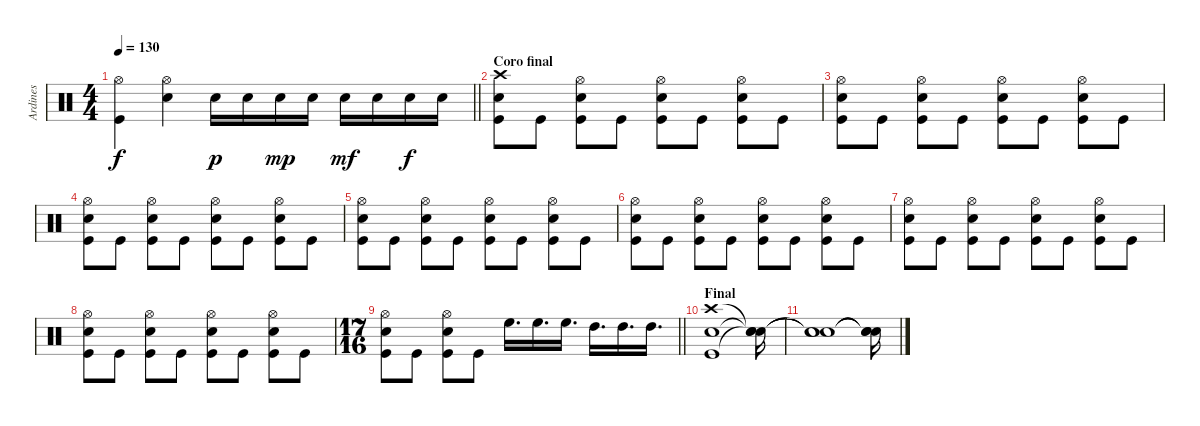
\track ("Ardines" "Ardines") {instrument percussion}
\staff {score}
\articulation defaults
\ts (4 4)
\tempo 130
\clef neutral
\barLineRight lightlight
\ks c
("Hi-Hat (open)" "Kick (hit)").4{dy f} ("Hi-Hat (open)" "Electric Snare (hit)").4 "Electric Snare (hit)".16{dy p} "Electric Snare (hit)".16 "Electric Snare (hit)".16{dy mp} "Electric Snare (hit)".16 "Electric Snare (hit)".16{dy mf} "Electric Snare (hit)".16 "Electric Snare (hit)".16{dy f} "Electric Snare (hit)".16 |
\section ("" "Coro final")
("Crash high (hit)" "Electric Snare (hit)" "Kick (hit)").8 "Kick (hit)".8 ("Hi-Hat (open)" "Electric Snare (hit)" "Kick (hit)").8 "Kick (hit)".8 ("Hi-Hat (open)" "Electric Snare (hit)" "Kick (hit)").8 "Kick (hit)".8 ("Hi-Hat (open)" "Electric Snare (hit)" "Kick (hit)").8 "Kick (hit)".8 |
("Hi-Hat (open)" "Electric Snare (hit)" "Kick (hit)").8 "Kick (hit)".8 ("Hi-Hat (open)" "Electric Snare (hit)" "Kick (hit)").8 "Kick (hit)".8 ("Hi-Hat (open)" "Electric Snare (hit)" "Kick (hit)").8 "Kick (hit)".8 ("Hi-Hat (open)" "Electric Snare (hit)" "Kick (hit)").8 "Kick (hit)".8 |
("Hi-Hat (open)" "Electric Snare (hit)" "Kick (hit)").8 "Kick (hit)".8 ("Hi-Hat (open)" "Electric Snare (hit)" "Kick (hit)").8 "Kick (hit)".8 ("Hi-Hat (open)" "Electric Snare (hit)" "Kick (hit)").8 "Kick (hit)".8 ("Hi-Hat (open)" "Electric Snare (hit)" "Kick (hit)").8 "Kick (hit)".8 |
("Hi-Hat (open)" "Electric Snare (hit)" "Kick (hit)").8 "Kick (hit)".8 ("Hi-Hat (open)" "Electric Snare (hit)" "Kick (hit)").8 "Kick (hit)".8 ("Hi-Hat (open)" "Electric Snare (hit)" "Kick (hit)").8 "Kick (hit)".8 ("Hi-Hat (open)" "Electric Snare (hit)" "Kick (hit)").8 "Kick (hit)".8 |
("Hi-Hat (open)" "Electric Snare (hit)" "Kick (hit)").8 "Kick (hit)".8 ("Hi-Hat (open)" "Electric Snare (hit)" "Kick (hit)").8 "Kick (hit)".8 ("Hi-Hat (open)" "Electric Snare (hit)" "Kick (hit)").8 "Kick (hit)".8 ("Hi-Hat (open)" "Electric Snare (hit)" "Kick (hit)").8 "Kick (hit)".8 |
("Hi-Hat (open)" "Electric Snare (hit)" "Kick (hit)").8 "Kick (hit)".8 ("Hi-Hat (open)" "Electric Snare (hit)" "Kick (hit)").8 "Kick (hit)".8 ("Hi-Hat (open)" "Electric Snare (hit)" "Kick (hit)").8 "Kick (hit)".8 ("Hi-Hat (open)" "Electric Snare (hit)" "Kick (hit)").8 "Kick (hit)".8 |
("Hi-Hat (open)" "Electric Snare (hit)" "Kick (hit)").8 "Kick (hit)".8 ("Hi-Hat (open)" "Electric Snare (hit)" "Kick (hit)").8 "Kick (hit)".8 ("Hi-Hat (open)" "Electric Snare (hit)" "Kick (hit)").8 "Kick (hit)".8 ("Hi-Hat (open)" "Electric Snare (hit)" "Kick (hit)").8 "Kick (hit)".8 |
\ts (17 16)
\barLineRight lightlight
("Hi-Hat (open)" "Electric Snare (hit)" "Kick (hit)").8 "Kick (hit)".8 ("Hi-Hat (open)" "Electric Snare (hit)" "Kick (hit)").8 "Kick (hit)".8 "High Floor Tom (hit)".16{d} "High Floor Tom (hit)".16{d} "High Floor Tom (hit)".16{d} "High Tom (hit)".16{d} "High Tom (hit)".16{d} "High Tom (hit)".16{d} |
\section ("" "Final")
("Crash high (hit)" "Electric Snare (hit)" "Kick (hit)").1 ("Snare (hit)"{t} "Snare (hit)"{t} "Snare (hit)"{t}).16 |
("Snare (hit)"{t} "Snare (hit)"{t} "Snare (hit)"{t}).1 ("Snare (hit)"{t} "Snare (hit)"{t} "Snare (hit)"{t}).16
